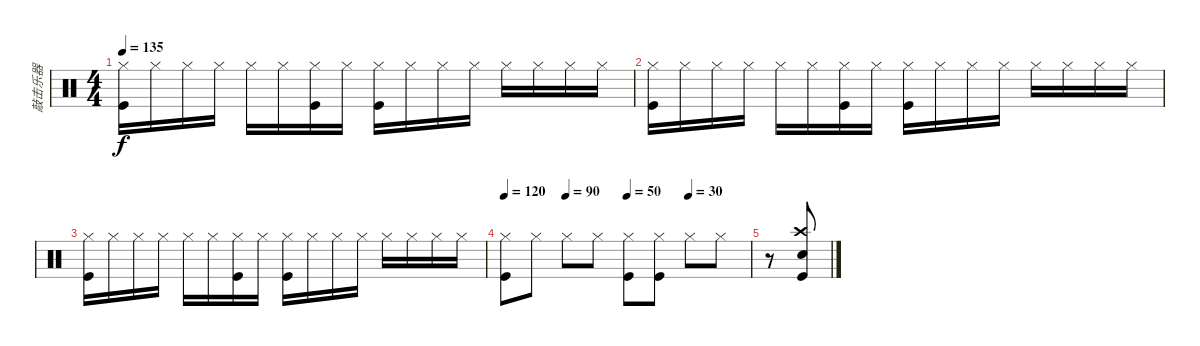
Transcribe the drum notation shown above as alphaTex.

\track ("敲击乐器" "敲击乐器") {instrument percussion}
\staff {score}
\articulation defaults
\ts (4 4)
\tempo 135
\clef neutral
\ks c
("Hi-Hat (closed)" "Kick (hit)").16{dy f} "Hi-Hat (closed)".16 "Hi-Hat (closed)".16 "Hi-Hat (closed)".16 "Hi-Hat (closed)".16 "Hi-Hat (closed)".16 ("Hi-Hat (closed)" "Kick (hit)").16 "Hi-Hat (closed)".16 ("Hi-Hat (closed)" "Kick (hit)").16 "Hi-Hat (closed)".16 "Hi-Hat (closed)".16 "Hi-Hat (closed)".16 "Hi-Hat (closed)".16 "Hi-Hat (closed)".16 "Hi-Hat (closed)".16 "Hi-Hat (closed)".16 |
("Hi-Hat (closed)" "Kick (hit)").16 "Hi-Hat (closed)".16 "Hi-Hat (closed)".16 "Hi-Hat (closed)".16 "Hi-Hat (closed)".16 "Hi-Hat (closed)".16 ("Hi-Hat (closed)" "Kick (hit)").16 "Hi-Hat (closed)".16 ("Hi-Hat (closed)" "Kick (hit)").16 "Hi-Hat (closed)".16 "Hi-Hat (closed)".16 "Hi-Hat (closed)".16 "Hi-Hat (closed)".16 "Hi-Hat (closed)".16 "Hi-Hat (closed)".16 "Hi-Hat (closed)".16 |
("Hi-Hat (closed)" "Kick (hit)").16 "Hi-Hat (closed)".16 "Hi-Hat (closed)".16 "Hi-Hat (closed)".16 "Hi-Hat (closed)".16 "Hi-Hat (closed)".16 ("Hi-Hat (closed)" "Kick (hit)").16 "Hi-Hat (closed)".16 ("Hi-Hat (closed)" "Kick (hit)").16 "Hi-Hat (closed)".16 "Hi-Hat (closed)".16 "Hi-Hat (closed)".16 "Hi-Hat (closed)".16 "Hi-Hat (closed)".16 "Hi-Hat (closed)".16 "Hi-Hat (closed)".16 |
\tempo 120
\tempo (90 0.25)
\tempo (50 0.5)
\tempo (30 0.75)
("Hi-Hat (closed)" "Kick (hit)").8 "Hi-Hat (closed)".8 "Hi-Hat (closed)".8 "Hi-Hat (closed)".8 ("Hi-Hat (closed)" "Kick (hit)").8 ("Hi-Hat (closed)" "Kick (hit)").8 "Hi-Hat (closed)".8 "Hi-Hat (closed)".8 |
r.8 ("Crash high (hit)" "Snare (hit) 2" "Kick (hit)").8
